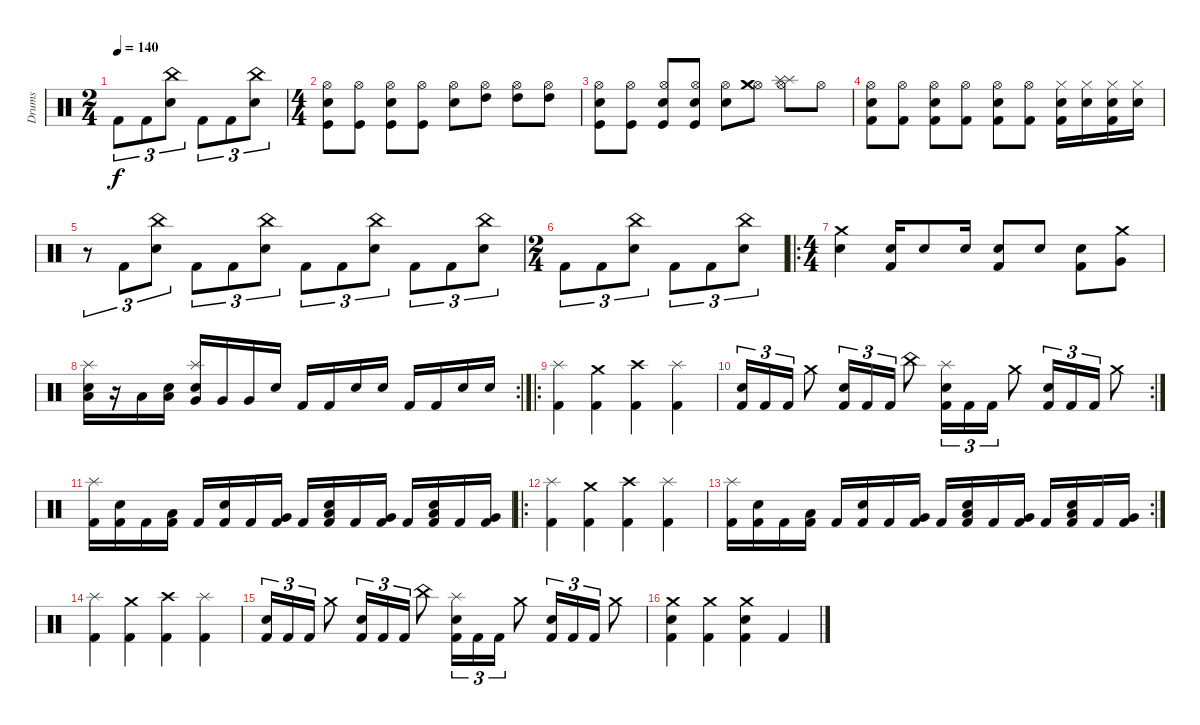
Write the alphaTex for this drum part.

\track ("Drums" "Drums") {instrument percussion}
\staff {score}
\articulation defaults
\ts (2 4)
\tempo 140
\clef neutral
\ks c "Kick (hit) 2".8{tu (3 2) dy f} "Kick (hit) 2".8{tu (3 2)}
("China (hit)" "Snare (hit) 2").8{tu (3 2)} "Kick (hit) 2".8{tu (3 2)} "Kick (hit) 2".8{tu (3 2)} ("China (hit)" "Snare (hit) 2").8{tu (3 2)} |
\ts (4 4)
("Hi-Hat (open)" "Snare (hit) 2" "Kick (hit)").8 ("Hi-Hat (open)" "Kick (hit)").8 ("Hi-Hat (open)" "Snare (hit) 2" "Kick (hit)").8 ("Hi-Hat (open)" "Kick (hit)").8 ("Hi-Hat (open)" "Snare (hit) 2").8 ("Hi-Hat (open)" "High Tom (hit)").8 ("Hi-Hat (open)" "High Tom (hit)").8 ("Hi-Hat (open)" "High Tom (hit)").8 |
("Hi-Hat (open)" "Snare (hit) 2" "Kick (hit)").8 ("Hi-Hat (open)" "Kick (hit)").8 ("Hi-Hat (open)" "Snare (hit) 2" "Kick (hit)").8 ("Hi-Hat (open)" "Snare (hit) 2" "Kick (hit)").8 ("Hi-Hat (open)" "Snare (hit) 2").8 ("Hi-Hat (open)" "Crash medium (hit)" "Crash medium (hit)").8 ("Hi-Hat (open)" "Splash (hit)" "Splash (hit)").8 "Hi-Hat (open)".8 |
("Hi-Hat (open)" "Snare (hit) 2" "Kick (hit) 2").8 ("Hi-Hat (open)" "Kick (hit) 2").8 ("Hi-Hat (open)" "Snare (hit) 2" "Kick (hit) 2").8 ("Hi-Hat (open)" "Kick (hit) 2").8 ("Hi-Hat (open)" "Snare (hit) 2" "Kick (hit) 2").8 ("Hi-Hat (open)" "Kick (hit) 2").8 ("Hi-Hat (closed)" "Snare (hit) 2" "Kick (hit) 2").16 ("Hi-Hat (closed)" "Snare (hit) 2").16 ("Hi-Hat (closed)" "Snare (hit) 2" "Kick (hit) 2").16 ("Hi-Hat (closed)" "Snare (hit) 2").16 |
r.8{tu (3 2)} "Kick (hit) 2".8{tu (3 2)} ("China (hit)" "Snare (hit) 2").8{tu (3 2)} "Kick (hit) 2".8{tu (3 2)} "Kick (hit) 2".8{tu (3 2)} ("China (hit)" "Snare (hit) 2").8{tu (3 2)} "Kick (hit) 2".8{tu (3 2)} "Kick (hit) 2".8{tu (3 2)} ("China (hit)" "Snare (hit) 2").8{tu (3 2)} "Kick (hit) 2".8{tu (3 2)} "Kick (hit) 2".8{tu (3 2)} ("China (hit)" "Snare (hit) 2").8{tu (3 2)} |
\ts (2 4)
"Kick (hit) 2".8{tu (3 2)} "Kick (hit) 2".8{tu (3 2)} ("China (hit)" "Snare (hit) 2").8{tu (3 2)} "Kick (hit) 2".8{tu (3 2)} "Kick (hit) 2".8{tu (3 2)} ("China (hit)" "Snare (hit) 2").8{tu (3 2)} |
\ro
\ts (4 4)
("Snare (hit) 2" "Crash medium (hit)").4 ("Snare (hit) 2" "Kick (hit) 2").16 "Snare (hit) 2".8 "Snare (hit) 2".16 ("Snare (hit) 2" "Kick (hit) 2").8 "Snare (hit) 2".8 ("Snare (hit) 2" "Kick (hit) 2").8 ("Very Low Tom (hit)" "Crash medium (hit)").8 |
\rc 2
("Snare (hit) 2" "Splash (hit)" "Low Floor Tom (hit)").16 r.16 "Low Floor Tom (hit)".16 ("Snare (hit) 2" "Low Floor Tom (hit)").16 ("Snare (hit) 2" "Splash (hit)" "Very Low Tom (hit)").16 "Very Low Tom (hit)".16 "Very Low Tom (hit)".16 "Snare (hit) 2".16 "Kick (hit) 2".16 "Kick (hit) 2".16 "Snare (hit) 2".16 "Snare (hit) 2".16 "Kick (hit) 2".16 "Kick (hit) 2".16 "Snare (hit) 2".16 "Snare (hit) 2".16 |
\ro
("Splash (hit)" "Kick (hit) 2").4 ("Crash medium (hit)" "Kick (hit) 2").4 ("Crash high (hit)" "Kick (hit) 2").4 ("Splash (hit)" "Kick (hit) 2").4 |
\rc 2
("Snare (hit) 2" "Kick (hit) 2").16{tu (3 2)} "Kick (hit) 2".16{tu (3 2)} "Kick (hit) 2".16{tu (3 2)} "Crash medium (hit)".8 ("Snare (hit) 2" "Kick (hit) 2").16{tu (3 2)} "Kick (hit) 2".16{tu (3 2)} "Kick (hit) 2".16{tu (3 2)} "China (hit)".8 ("Snare (hit) 2" "Splash (hit)" "Kick (hit) 2").16{tu (3 2)} "Kick (hit) 2".16{tu (3 2)} "Kick (hit) 2".16{tu (3 2)} "Crash medium (hit)".8 ("Snare (hit) 2" "Kick (hit) 2").16{tu (3 2)} "Kick (hit) 2".16{tu (3 2)} "Kick (hit) 2".16{tu (3 2)} "Crash medium (hit)".8 |
("Splash (hit)" "Kick (hit) 2").16 ("Snare (hit) 2" "Kick (hit) 2").16 "Kick (hit) 2".16 ("Low Floor Tom (hit)" "Kick (hit) 2").16 "Kick (hit) 2".16 ("Snare (hit) 2" "Kick (hit) 2").16 "Kick (hit) 2".16 ("Very Low Tom (hit)" "Kick (hit) 2").16 "Kick (hit) 2".16 ("Snare (hit) 2" "Low Floor Tom (hit)" "Kick (hit) 2").16 "Kick (hit) 2".16 ("Very Low Tom (hit)" "Kick (hit) 2").16 "Kick (hit) 2".16 ("Snare (hit) 2" "Low Floor Tom (hit)" "Kick (hit) 2").16 "Kick (hit) 2".16 ("Very Low Tom (hit)" "Kick (hit) 2").16 |
\ro
("Splash (hit)" "Kick (hit) 2").4 ("Crash medium (hit)" "Kick (hit) 2").4 ("Crash high (hit)" "Kick (hit) 2").4 ("Splash (hit)" "Kick (hit) 2").4 |
\rc 2
("Splash (hit)" "Kick (hit) 2").16 ("Snare (hit) 2" "Kick (hit) 2").16 "Kick (hit) 2".16 ("Low Floor Tom (hit)" "Kick (hit) 2").16 "Kick (hit) 2".16 ("Snare (hit) 2" "Kick (hit) 2").16 "Kick (hit) 2".16 ("Very Low Tom (hit)" "Kick (hit) 2").16 "Kick (hit) 2".16 ("Snare (hit) 2" "Low Floor Tom (hit)" "Kick (hit) 2").16 "Kick (hit) 2".16 ("Very Low Tom (hit)" "Kick (hit) 2").16 "Kick (hit) 2".16 ("Snare (hit) 2" "Low Floor Tom (hit)" "Kick (hit) 2").16 "Kick (hit) 2".16 ("Very Low Tom (hit)" "Kick (hit) 2").16 |
("Splash (hit)" "Kick (hit) 2").4 ("Crash medium (hit)" "Kick (hit) 2").4 ("Crash high (hit)" "Kick (hit) 2").4 ("Splash (hit)" "Kick (hit) 2").4 |
("Snare (hit) 2" "Kick (hit) 2").16{tu (3 2)} "Kick (hit) 2".16{tu (3 2)} "Kick (hit) 2".16{tu (3 2)} "Crash medium (hit)".8 ("Snare (hit) 2" "Kick (hit) 2").16{tu (3 2)} "Kick (hit) 2".16{tu (3 2)} "Kick (hit) 2".16{tu (3 2)} "China (hit)".8 ("Snare (hit) 2" "Splash (hit)" "Kick (hit) 2").16{tu (3 2)} "Kick (hit) 2".16{tu (3 2)} "Kick (hit) 2".16{tu (3 2)} "Crash medium (hit)".8 ("Snare (hit) 2" "Kick (hit) 2").16{tu (3 2)} "Kick (hit) 2".16{tu (3 2)} "Kick (hit) 2".16{tu (3 2)} "Crash medium (hit)".8 |
("Kick (hit) 2" "Snare (hit) 2" "Crash medium (hit)").4 ("Kick (hit) 2" "Crash medium (hit)").4 ("Kick (hit) 2" "Snare (hit) 2" "Crash medium (hit)").4 "Kick (hit) 2".4
